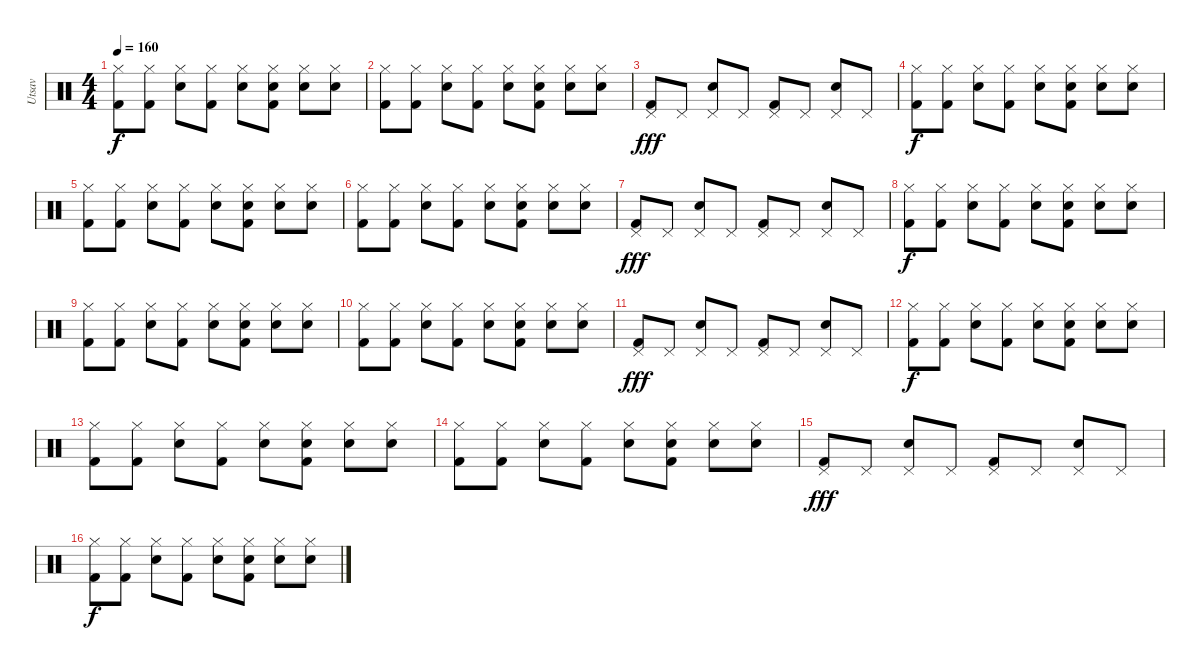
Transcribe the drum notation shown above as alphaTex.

\track ("Utsav" "Utsav") {instrument percussion}
\staff {score}
\articulation defaults
\ts (4 4)
\tempo 160
\clef neutral
\ks c
("Hi-Hat (closed)" "Kick (hit) 2").8{dy f} ("Hi-Hat (closed)" "Kick (hit) 2").8 ("Hi-Hat (closed)" "Electric Snare (hit)").8 ("Hi-Hat (closed)" "Kick (hit) 2").8 ("Hi-Hat (closed)" "Electric Snare (hit)").8 ("Hi-Hat (closed)" "Snare (hit) 2" "Kick (hit) 2").8 ("Hi-Hat (closed)" "Snare (hit) 2").8 ("Hi-Hat (closed)" "Snare (hit) 2").8 |
("Hi-Hat (closed)" "Kick (hit) 2").8 ("Hi-Hat (closed)" "Kick (hit) 2").8 ("Hi-Hat (closed)" "Electric Snare (hit)").8 ("Hi-Hat (closed)" "Kick (hit) 2").8 ("Hi-Hat (closed)" "Electric Snare (hit)").8 ("Hi-Hat (closed)" "Snare (hit) 2" "Kick (hit) 2").8 ("Hi-Hat (closed)" "Snare (hit) 2").8 ("Hi-Hat (closed)" "Snare (hit) 2").8 |
("Pedal Hi-Hat (hit)" "Kick (hit) 2").8{dy fff} "Pedal Hi-Hat (hit)".8 ("Pedal Hi-Hat (hit)" "Electric Snare (hit)").8 "Pedal Hi-Hat (hit)".8 ("Pedal Hi-Hat (hit)" "Kick (hit) 2").8 "Pedal Hi-Hat (hit)".8 ("Pedal Hi-Hat (hit)" "Electric Snare (hit)").8 "Pedal Hi-Hat (hit)".8 |
("Hi-Hat (closed)" "Kick (hit) 2").8{dy f} ("Hi-Hat (closed)" "Kick (hit) 2").8 ("Hi-Hat (closed)" "Electric Snare (hit)").8 ("Hi-Hat (closed)" "Kick (hit) 2").8 ("Hi-Hat (closed)" "Electric Snare (hit)").8 ("Hi-Hat (closed)" "Snare (hit) 2" "Kick (hit) 2").8 ("Hi-Hat (closed)" "Snare (hit) 2").8 ("Hi-Hat (closed)" "Snare (hit) 2").8 |
("Hi-Hat (closed)" "Kick (hit) 2").8 ("Hi-Hat (closed)" "Kick (hit) 2").8 ("Hi-Hat (closed)" "Electric Snare (hit)").8 ("Hi-Hat (closed)" "Kick (hit) 2").8 ("Hi-Hat (closed)" "Electric Snare (hit)").8 ("Hi-Hat (closed)" "Snare (hit) 2" "Kick (hit) 2").8 ("Hi-Hat (closed)" "Snare (hit) 2").8 ("Hi-Hat (closed)" "Snare (hit) 2").8 |
("Hi-Hat (closed)" "Kick (hit) 2").8 ("Hi-Hat (closed)" "Kick (hit) 2").8 ("Hi-Hat (closed)" "Electric Snare (hit)").8 ("Hi-Hat (closed)" "Kick (hit) 2").8 ("Hi-Hat (closed)" "Electric Snare (hit)").8 ("Hi-Hat (closed)" "Snare (hit) 2" "Kick (hit) 2").8 ("Hi-Hat (closed)" "Snare (hit) 2").8 ("Hi-Hat (closed)" "Snare (hit) 2").8 |
("Pedal Hi-Hat (hit)" "Kick (hit) 2").8{dy fff} "Pedal Hi-Hat (hit)".8 ("Pedal Hi-Hat (hit)" "Electric Snare (hit)").8 "Pedal Hi-Hat (hit)".8 ("Pedal Hi-Hat (hit)" "Kick (hit) 2").8 "Pedal Hi-Hat (hit)".8 ("Pedal Hi-Hat (hit)" "Electric Snare (hit)").8 "Pedal Hi-Hat (hit)".8 |
("Hi-Hat (closed)" "Kick (hit) 2").8{dy f} ("Hi-Hat (closed)" "Kick (hit) 2").8 ("Hi-Hat (closed)" "Electric Snare (hit)").8 ("Hi-Hat (closed)" "Kick (hit) 2").8 ("Hi-Hat (closed)" "Electric Snare (hit)").8 ("Hi-Hat (closed)" "Snare (hit) 2" "Kick (hit) 2").8 ("Hi-Hat (closed)" "Snare (hit) 2").8 ("Hi-Hat (closed)" "Snare (hit) 2").8 |
("Hi-Hat (closed)" "Kick (hit) 2").8 ("Hi-Hat (closed)" "Kick (hit) 2").8 ("Hi-Hat (closed)" "Electric Snare (hit)").8 ("Hi-Hat (closed)" "Kick (hit) 2").8 ("Hi-Hat (closed)" "Electric Snare (hit)").8 ("Hi-Hat (closed)" "Snare (hit) 2" "Kick (hit) 2").8 ("Hi-Hat (closed)" "Snare (hit) 2").8 ("Hi-Hat (closed)" "Snare (hit) 2").8 |
("Hi-Hat (closed)" "Kick (hit) 2").8 ("Hi-Hat (closed)" "Kick (hit) 2").8 ("Hi-Hat (closed)" "Electric Snare (hit)").8 ("Hi-Hat (closed)" "Kick (hit) 2").8 ("Hi-Hat (closed)" "Electric Snare (hit)").8 ("Hi-Hat (closed)" "Snare (hit) 2" "Kick (hit) 2").8 ("Hi-Hat (closed)" "Snare (hit) 2").8 ("Hi-Hat (closed)" "Snare (hit) 2").8 |
("Pedal Hi-Hat (hit)" "Kick (hit) 2").8{dy fff} "Pedal Hi-Hat (hit)".8 ("Pedal Hi-Hat (hit)" "Electric Snare (hit)").8 "Pedal Hi-Hat (hit)".8 ("Pedal Hi-Hat (hit)" "Kick (hit) 2").8 "Pedal Hi-Hat (hit)".8 ("Pedal Hi-Hat (hit)" "Electric Snare (hit)").8 "Pedal Hi-Hat (hit)".8 |
("Hi-Hat (closed)" "Kick (hit) 2").8{dy f} ("Hi-Hat (closed)" "Kick (hit) 2").8 ("Hi-Hat (closed)" "Electric Snare (hit)").8 ("Hi-Hat (closed)" "Kick (hit) 2").8 ("Hi-Hat (closed)" "Electric Snare (hit)").8 ("Hi-Hat (closed)" "Snare (hit) 2" "Kick (hit) 2").8 ("Hi-Hat (closed)" "Snare (hit) 2").8 ("Hi-Hat (closed)" "Snare (hit) 2").8 |
("Hi-Hat (closed)" "Kick (hit) 2").8 ("Hi-Hat (closed)" "Kick (hit) 2").8 ("Hi-Hat (closed)" "Electric Snare (hit)").8 ("Hi-Hat (closed)" "Kick (hit) 2").8 ("Hi-Hat (closed)" "Electric Snare (hit)").8 ("Hi-Hat (closed)" "Snare (hit) 2" "Kick (hit) 2").8 ("Hi-Hat (closed)" "Snare (hit) 2").8 ("Hi-Hat (closed)" "Snare (hit) 2").8 |
("Hi-Hat (closed)" "Kick (hit) 2").8 ("Hi-Hat (closed)" "Kick (hit) 2").8 ("Hi-Hat (closed)" "Electric Snare (hit)").8 ("Hi-Hat (closed)" "Kick (hit) 2").8 ("Hi-Hat (closed)" "Electric Snare (hit)").8 ("Hi-Hat (closed)" "Snare (hit) 2" "Kick (hit) 2").8 ("Hi-Hat (closed)" "Snare (hit) 2").8 ("Hi-Hat (closed)" "Snare (hit) 2").8 |
("Pedal Hi-Hat (hit)" "Kick (hit) 2").8{dy fff} "Pedal Hi-Hat (hit)".8 ("Pedal Hi-Hat (hit)" "Electric Snare (hit)").8 "Pedal Hi-Hat (hit)".8 ("Pedal Hi-Hat (hit)" "Kick (hit) 2").8 "Pedal Hi-Hat (hit)".8 ("Pedal Hi-Hat (hit)" "Electric Snare (hit)").8 "Pedal Hi-Hat (hit)".8 |
("Hi-Hat (closed)" "Kick (hit) 2").8{dy f} ("Hi-Hat (closed)" "Kick (hit) 2").8 ("Hi-Hat (closed)" "Electric Snare (hit)").8 ("Hi-Hat (closed)" "Kick (hit) 2").8 ("Hi-Hat (closed)" "Electric Snare (hit)").8 ("Hi-Hat (closed)" "Snare (hit) 2" "Kick (hit) 2").8 ("Hi-Hat (closed)" "Snare (hit) 2").8 ("Hi-Hat (closed)" "Snare (hit) 2").8
